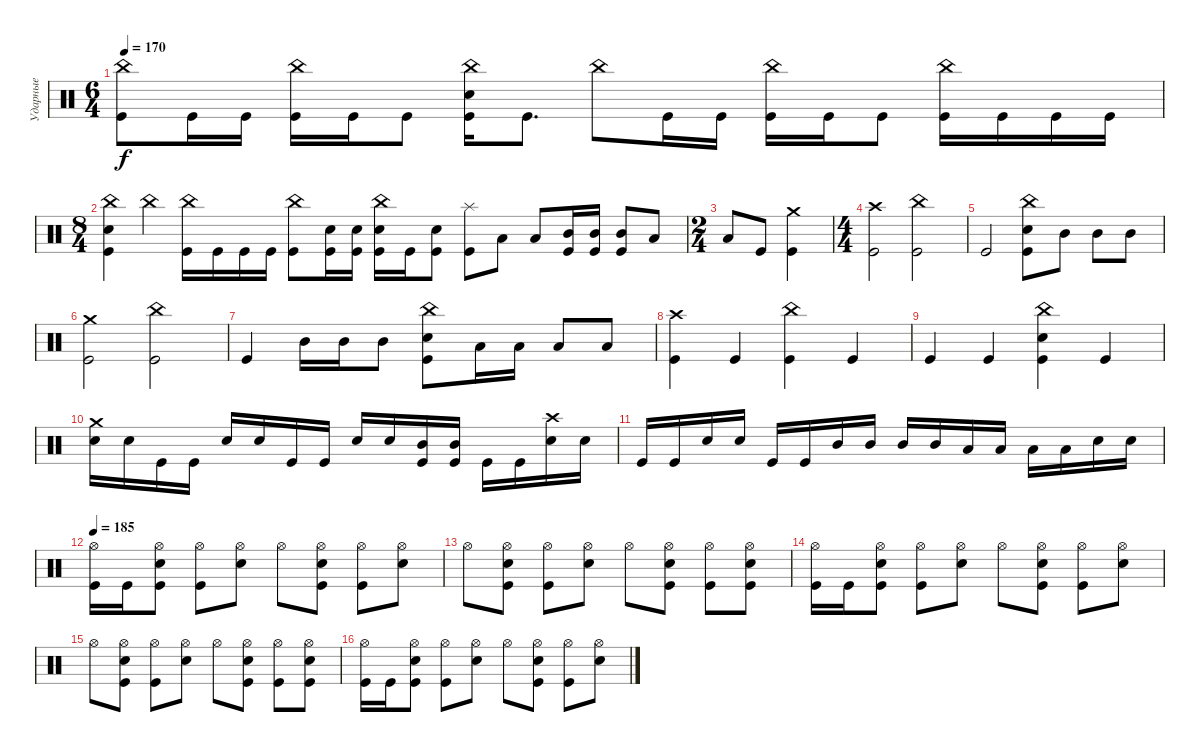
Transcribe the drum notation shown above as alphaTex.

\track ("Ударные" "Ударные") {instrument percussion}
\staff {score}
\articulation defaults
\ts (6 4)
\tempo 170
\clef neutral
\ks c
("China (hit)" "Kick (hit)").8{dy f} "Kick (hit)".16 "Kick (hit)".16 ("China (hit)" "Kick (hit)").16 "Kick (hit)".16 "Kick (hit)".8 ("China (hit)" "Snare (hit) 2" "Kick (hit)").16 "Kick (hit)".8{d} "China (hit)".8 "Kick (hit)".16 "Kick (hit)".16 ("China (hit)" "Kick (hit)").16 "Kick (hit)".16 "Kick (hit)".8 ("China (hit)" "Kick (hit)").16 "Kick (hit)".16 "Kick (hit)".16 "Kick (hit)".16 |
\ts (8 4)
("China (hit)" "Snare (hit) 2" "Kick (hit)").4 "China (hit)".4 ("China (hit)" "Kick (hit)").16 "Kick (hit)".16 "Kick (hit)".16 "Kick (hit)".16 ("China (hit)" "Kick (hit)").8 ("Snare (hit) 2" "Kick (hit)").16 ("Snare (hit) 2" "Kick (hit)").16 ("China (hit)" "Snare (hit) 2" "Kick (hit)").16 "Kick (hit)".16 ("Snare (hit) 2" "Kick (hit)").8 ("Splash (hit)" "Kick (hit)").8 "Low Tom (hit)".8 "Low Tom (hit)".8 ("Mid Tom (hit)" "Kick (hit)").16 ("Mid Tom (hit)" "Kick (hit)").16 ("Mid Tom (hit)" "Kick (hit)").8 "Low Tom (hit)".8 |
\ts (2 4)
"Low Tom (hit)".8 "Kick (hit)".8 ("Crash medium (hit)" "Kick (hit)").4 |
\ts (4 4)
("Crash high (hit)" "Kick (hit)").2 ("China (hit)" "Kick (hit)").2 |
"Kick (hit)".2 ("China (hit)" "Snare (hit) 2" "Kick (hit)").8 "Mid Tom (hit)".8 "Mid Tom (hit)".8 "Mid Tom (hit)".8 |
("Crash medium (hit)" "Kick (hit)").2 ("China (hit)" "Kick (hit)").2 |
"Kick (hit)".4 "Mid Tom (hit)".16 "Mid Tom (hit)".16 "Mid Tom (hit)".8 ("China (hit)" "Snare (hit) 2" "Kick (hit)").8 "Low Tom (hit)".16 "Low Tom (hit)".16 "Low Tom (hit)".8 "Low Tom (hit)".8 |
("Crash high (hit)" "Kick (hit)").4 "Kick (hit)".4 ("China (hit)" "Kick (hit)").4 "Kick (hit)".4 |
"Kick (hit)".4 "Kick (hit)".4 ("China (hit)" "Snare (hit) 2" "Kick (hit)").4 "Kick (hit)".4 |
("Crash medium (hit)" "Snare (hit) 2").16 "Snare (hit) 2".16 "Kick (hit)".16 "Kick (hit)".16 "Snare (hit) 2".16 "Snare (hit) 2".16 "Kick (hit)".16 "Kick (hit)".16 "Snare (hit) 2".16 "Snare (hit) 2".16 ("Mid Tom (hit)" "Kick (hit)").16 ("Mid Tom (hit)" "Kick (hit)").16 "Kick (hit)".16 "Kick (hit)".16 ("Crash high (hit)" "Snare (hit) 2").16 "Snare (hit) 2".16 |
"Kick (hit)".16 "Kick (hit)".16 "Snare (hit) 2".16 "Snare (hit) 2".16 "Kick (hit)".16 "Kick (hit)".16 "Mid Tom (hit)".16 "Mid Tom (hit)".16 "Mid Tom (hit)".16 "Mid Tom (hit)".16 "Low Tom (hit)".16 "Low Tom (hit)".16 "Low Tom (hit)".16 "Low Tom (hit)".16 "Snare (hit) 2".16 "Snare (hit) 2".16 |
\tempo 185
("Hi-Hat (open)" "Kick (hit)").16 "Kick (hit)".16 ("Hi-Hat (open)" "Snare (hit) 2" "Kick (hit)").8 ("Hi-Hat (open)" "Kick (hit)").8 ("Hi-Hat (open)" "Snare (hit) 2").8 "Hi-Hat (open)".8 ("Hi-Hat (open)" "Snare (hit) 2" "Kick (hit)").8 ("Hi-Hat (open)" "Kick (hit)").8 ("Hi-Hat (open)" "Snare (hit) 2").8 |
"Hi-Hat (open)".8 ("Hi-Hat (open)" "Snare (hit) 2" "Kick (hit)").8 ("Hi-Hat (open)" "Kick (hit)").8 ("Hi-Hat (open)" "Snare (hit) 2").8 "Hi-Hat (open)".8 ("Hi-Hat (open)" "Snare (hit) 2" "Kick (hit)").8 ("Hi-Hat (open)" "Kick (hit)").8 ("Hi-Hat (open)" "Snare (hit) 2" "Kick (hit)").8 |
("Hi-Hat (open)" "Kick (hit)").16 "Kick (hit)".16 ("Hi-Hat (open)" "Snare (hit) 2" "Kick (hit)").8 ("Hi-Hat (open)" "Kick (hit)").8 ("Hi-Hat (open)" "Snare (hit) 2").8 "Hi-Hat (open)".8 ("Hi-Hat (open)" "Snare (hit) 2" "Kick (hit)").8 ("Hi-Hat (open)" "Kick (hit)").8 ("Hi-Hat (open)" "Snare (hit) 2").8 |
"Hi-Hat (open)".8 ("Hi-Hat (open)" "Snare (hit) 2" "Kick (hit)").8 ("Hi-Hat (open)" "Kick (hit)").8 ("Hi-Hat (open)" "Snare (hit) 2").8 "Hi-Hat (open)".8 ("Hi-Hat (open)" "Snare (hit) 2" "Kick (hit)").8 ("Hi-Hat (open)" "Kick (hit)").8 ("Hi-Hat (open)" "Snare (hit) 2" "Kick (hit)").8 |
("Hi-Hat (open)" "Kick (hit)").16 "Kick (hit)".16 ("Hi-Hat (open)" "Snare (hit) 2" "Kick (hit)").8 ("Hi-Hat (open)" "Kick (hit)").8 ("Hi-Hat (open)" "Snare (hit) 2").8 "Hi-Hat (open)".8 ("Hi-Hat (open)" "Snare (hit) 2" "Kick (hit)").8 ("Hi-Hat (open)" "Kick (hit)").8 ("Hi-Hat (open)" "Snare (hit) 2").8
